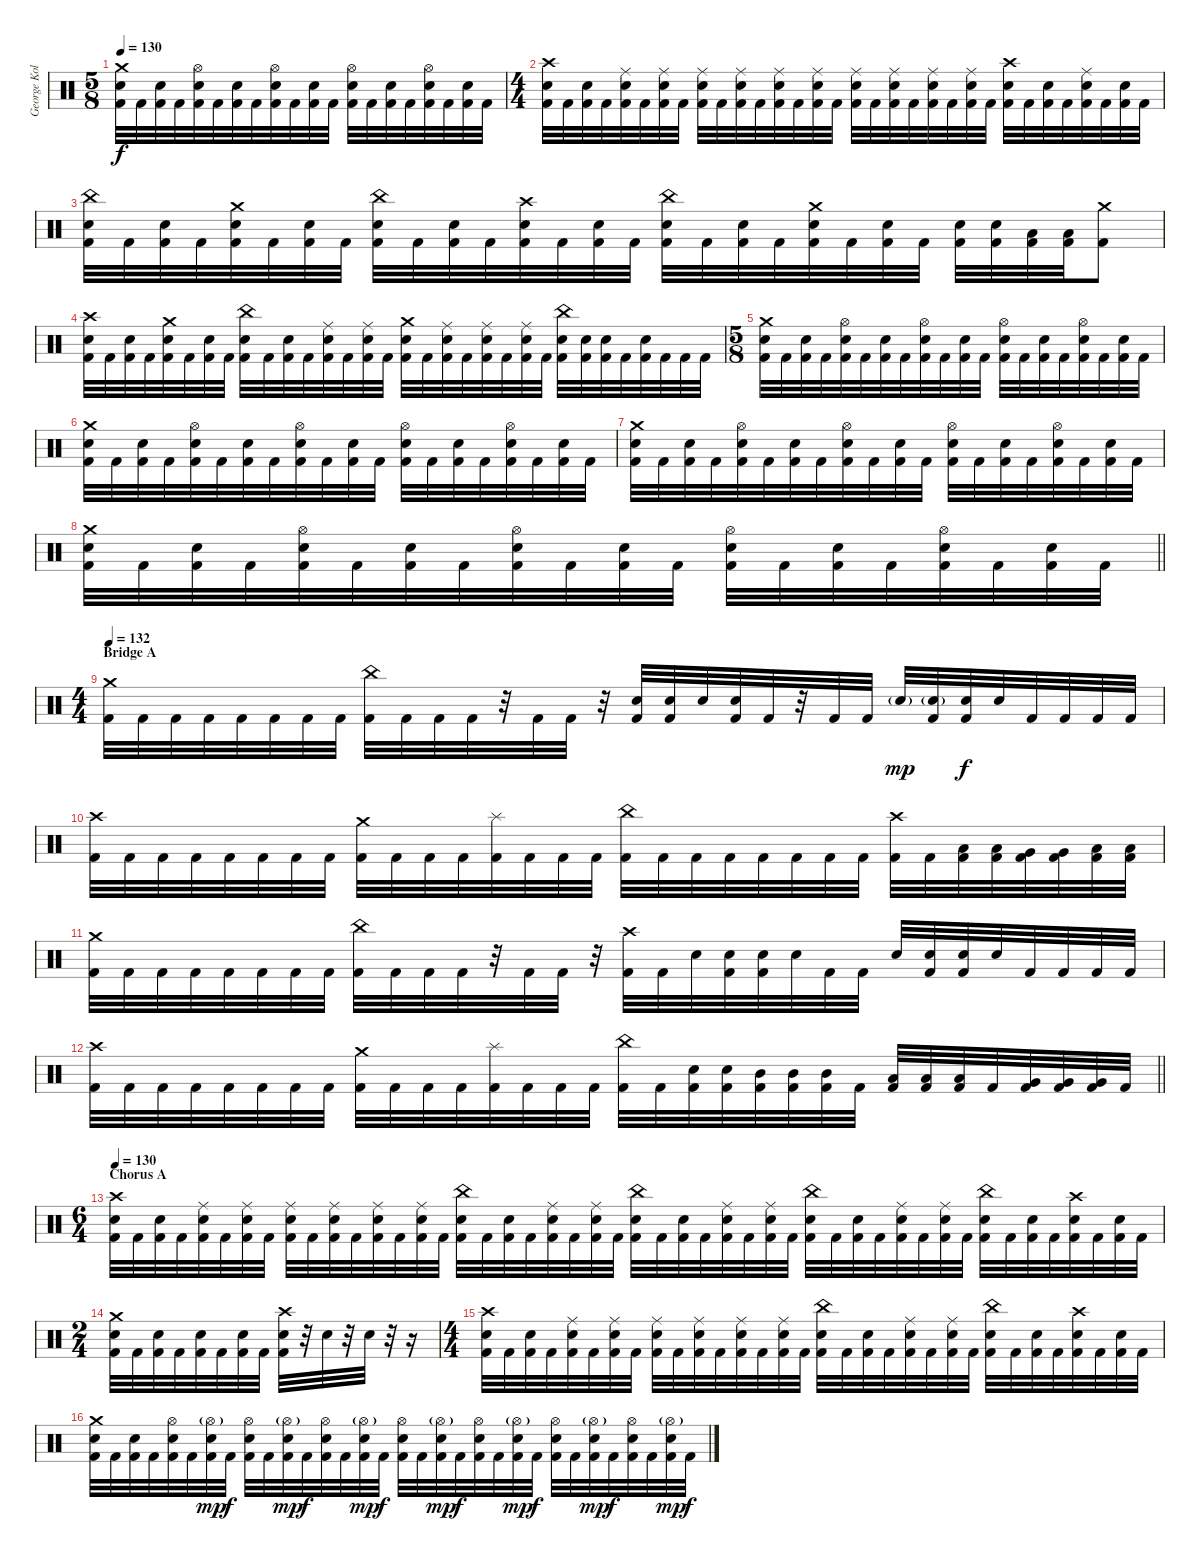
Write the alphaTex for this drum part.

\track ("George Kollias" "George Kol") {instrument percussion}
\staff {score}
\articulation defaults
\ts (5 8)
\tempo 130
\clef neutral
\ks c
("Crash medium (hit)" "Electric Snare (hit)" "Kick (hit) 2").32{dy f} "Kick (hit) 2".32 ("Electric Snare (hit)" "Kick (hit) 2").32 "Kick (hit) 2".32 ("Hi-Hat (open)" "Electric Snare (hit)" "Kick (hit) 2").32 "Kick (hit) 2".32 ("Electric Snare (hit)" "Kick (hit) 2").32 "Kick (hit) 2".32 ("Hi-Hat (open)" "Electric Snare (hit)" "Kick (hit) 2").32 "Kick (hit) 2".32 ("Electric Snare (hit)" "Kick (hit) 2").32 "Kick (hit) 2".32 ("Hi-Hat (open)" "Electric Snare (hit)" "Kick (hit) 2").32 "Kick (hit) 2".32 ("Electric Snare (hit)" "Kick (hit) 2").32 "Kick (hit) 2".32 ("Hi-Hat (open)" "Electric Snare (hit)" "Kick (hit) 2").32 "Kick (hit) 2".32 ("Electric Snare (hit)" "Kick (hit) 2").32 "Kick (hit) 2".32 |
\ts (4 4)
("Crash high (hit)" "Electric Snare (hit)" "Kick (hit) 2").32 "Kick (hit) 2".32 ("Electric Snare (hit)" "Kick (hit) 2").32 "Kick (hit) 2".32 ("Ride (middle)" "Electric Snare (hit)" "Kick (hit) 2").32 "Kick (hit) 2".32 ("Ride (middle)" "Electric Snare (hit)" "Kick (hit) 2").32 "Kick (hit) 2".32 ("Ride (middle)" "Electric Snare (hit)" "Kick (hit) 2").32 "Kick (hit) 2".32 ("Ride (middle)" "Electric Snare (hit)" "Kick (hit) 2").32 "Kick (hit) 2".32 ("Ride (middle)" "Electric Snare (hit)" "Kick (hit) 2").32 "Kick (hit) 2".32 ("Ride (middle)" "Electric Snare (hit)" "Kick (hit) 2").32 "Kick (hit) 2".32 ("Ride (middle)" "Electric Snare (hit)" "Kick (hit) 2").32 "Kick (hit) 2".32 ("Ride (middle)" "Electric Snare (hit)" "Kick (hit) 2").32 "Kick (hit) 2".32 ("Ride (middle)" "Electric Snare (hit)" "Kick (hit) 2").32 "Kick (hit) 2".32 ("Ride (middle)" "Electric Snare (hit)" "Kick (hit) 2").32 "Kick (hit) 2".32 ("Crash high (hit)" "Electric Snare (hit)" "Kick (hit) 2").32 "Kick (hit) 2".32 ("Electric Snare (hit)" "Kick (hit) 2").32 "Kick (hit) 2".32 ("Ride (middle)" "Electric Snare (hit)" "Kick (hit) 2").32 "Kick (hit) 2".32 ("Electric Snare (hit)" "Kick (hit) 2").32 "Kick (hit) 2".32 |
("China (hit)" "Electric Snare (hit)" "Kick (hit) 2").32 "Kick (hit) 2".32 ("Electric Snare (hit)" "Kick (hit) 2").32 "Kick (hit) 2".32 ("Crash medium (hit)" "Electric Snare (hit)" "Kick (hit) 2").32 "Kick (hit) 2".32 ("Electric Snare (hit)" "Kick (hit) 2").32 "Kick (hit) 2".32 ("China (hit)" "Electric Snare (hit)" "Kick (hit) 2").32 "Kick (hit) 2".32 ("Electric Snare (hit)" "Kick (hit) 2").32 "Kick (hit) 2".32 ("Crash high (hit)" "Electric Snare (hit)" "Kick (hit) 2").32 "Kick (hit) 2".32 ("Electric Snare (hit)" "Kick (hit) 2").32 "Kick (hit) 2".32 ("China (hit)" "Electric Snare (hit)" "Kick (hit) 2").32 "Kick (hit) 2".32 ("Electric Snare (hit)" "Kick (hit) 2").32 "Kick (hit) 2".32 ("Crash medium (hit)" "Electric Snare (hit)" "Kick (hit) 2").32 "Kick (hit) 2".32 ("Electric Snare (hit)" "Kick (hit) 2").32 "Kick (hit) 2".32 ("Electric Snare (hit)" "Kick (hit) 2").32 ("Electric Snare (hit)" "Kick (hit) 2").32 ("Low Tom (hit)" "Kick (hit) 2").32 ("Low Tom (hit)" "Kick (hit) 2").32 ("Crash medium (hit)" "Kick (hit) 2").8 |
("Crash high (hit)" "Electric Snare (hit)" "Kick (hit) 2").32 "Kick (hit) 2".32 ("Electric Snare (hit)" "Kick (hit) 2").32 "Kick (hit) 2".32 ("Crash medium (hit)" "Electric Snare (hit)" "Kick (hit) 2").32 "Kick (hit) 2".32 ("Electric Snare (hit)" "Kick (hit) 2").32 "Kick (hit) 2".32 ("China (hit)" "Electric Snare (hit)" "Kick (hit) 2").32 "Kick (hit) 2".32 ("Electric Snare (hit)" "Kick (hit) 2").32 "Kick (hit) 2".32 ("Ride (middle)" "Electric Snare (hit)" "Kick (hit) 2").32 "Kick (hit) 2".32 ("Ride (middle)" "Electric Snare (hit)" "Kick (hit) 2").32 "Kick (hit) 2".32 ("Crash medium (hit)" "Electric Snare (hit)" "Kick (hit) 2").32 "Kick (hit) 2".32 ("Ride (middle)" "Electric Snare (hit)" "Kick (hit) 2").32 "Kick (hit) 2".32 ("Ride (middle)" "Electric Snare (hit)" "Kick (hit) 2").32 "Kick (hit) 2".32 ("Ride (middle)" "Electric Snare (hit)" "Kick (hit) 2").32 "Kick (hit) 2".32 ("China (hit)" "Electric Snare (hit)" "Kick (hit) 2").32 ("Electric Snare (hit)" "Kick (hit) 2").32 ("Electric Snare (hit)" "Kick (hit) 2").32 "Kick (hit) 2".32 ("Electric Snare (hit)" "Kick (hit) 2").32 "Kick (hit) 2".32 "Kick (hit) 2".32 "Kick (hit) 2".32 |
\ts (5 8)
("Crash medium (hit)" "Electric Snare (hit)" "Kick (hit) 2").32 "Kick (hit) 2".32 ("Electric Snare (hit)" "Kick (hit) 2").32 "Kick (hit) 2".32 ("Hi-Hat (open)" "Electric Snare (hit)" "Kick (hit) 2").32 "Kick (hit) 2".32 ("Electric Snare (hit)" "Kick (hit) 2").32 "Kick (hit) 2".32 ("Hi-Hat (open)" "Electric Snare (hit)" "Kick (hit) 2").32 "Kick (hit) 2".32 ("Electric Snare (hit)" "Kick (hit) 2").32 "Kick (hit) 2".32 ("Hi-Hat (open)" "Electric Snare (hit)" "Kick (hit) 2").32 "Kick (hit) 2".32 ("Electric Snare (hit)" "Kick (hit) 2").32 "Kick (hit) 2".32 ("Hi-Hat (open)" "Electric Snare (hit)" "Kick (hit) 2").32 "Kick (hit) 2".32 ("Electric Snare (hit)" "Kick (hit) 2").32 "Kick (hit) 2".32 |
("Crash medium (hit)" "Electric Snare (hit)" "Kick (hit) 2").32 "Kick (hit) 2".32 ("Electric Snare (hit)" "Kick (hit) 2").32 "Kick (hit) 2".32 ("Hi-Hat (open)" "Electric Snare (hit)" "Kick (hit) 2").32 "Kick (hit) 2".32 ("Electric Snare (hit)" "Kick (hit) 2").32 "Kick (hit) 2".32 ("Hi-Hat (open)" "Electric Snare (hit)" "Kick (hit) 2").32 "Kick (hit) 2".32 ("Electric Snare (hit)" "Kick (hit) 2").32 "Kick (hit) 2".32 ("Hi-Hat (open)" "Electric Snare (hit)" "Kick (hit) 2").32 "Kick (hit) 2".32 ("Electric Snare (hit)" "Kick (hit) 2").32 "Kick (hit) 2".32 ("Hi-Hat (open)" "Electric Snare (hit)" "Kick (hit) 2").32 "Kick (hit) 2".32 ("Electric Snare (hit)" "Kick (hit) 2").32 "Kick (hit) 2".32 |
("Crash medium (hit)" "Electric Snare (hit)" "Kick (hit) 2").32 "Kick (hit) 2".32 ("Electric Snare (hit)" "Kick (hit) 2").32 "Kick (hit) 2".32 ("Hi-Hat (open)" "Electric Snare (hit)" "Kick (hit) 2").32 "Kick (hit) 2".32 ("Electric Snare (hit)" "Kick (hit) 2").32 "Kick (hit) 2".32 ("Hi-Hat (open)" "Electric Snare (hit)" "Kick (hit) 2").32 "Kick (hit) 2".32 ("Electric Snare (hit)" "Kick (hit) 2").32 "Kick (hit) 2".32 ("Hi-Hat (open)" "Electric Snare (hit)" "Kick (hit) 2").32 "Kick (hit) 2".32 ("Electric Snare (hit)" "Kick (hit) 2").32 "Kick (hit) 2".32 ("Hi-Hat (open)" "Electric Snare (hit)" "Kick (hit) 2").32 "Kick (hit) 2".32 ("Electric Snare (hit)" "Kick (hit) 2").32 "Kick (hit) 2".32 |
\barLineRight lightlight
("Crash medium (hit)" "Electric Snare (hit)" "Kick (hit) 2").32 "Kick (hit) 2".32 ("Electric Snare (hit)" "Kick (hit) 2").32 "Kick (hit) 2".32 ("Hi-Hat (open)" "Electric Snare (hit)" "Kick (hit) 2").32 "Kick (hit) 2".32 ("Electric Snare (hit)" "Kick (hit) 2").32 "Kick (hit) 2".32 ("Hi-Hat (open)" "Electric Snare (hit)" "Kick (hit) 2").32 "Kick (hit) 2".32 ("Electric Snare (hit)" "Kick (hit) 2").32 "Kick (hit) 2".32 ("Hi-Hat (open)" "Electric Snare (hit)" "Kick (hit) 2").32 "Kick (hit) 2".32 ("Electric Snare (hit)" "Kick (hit) 2").32 "Kick (hit) 2".32 ("Hi-Hat (open)" "Electric Snare (hit)" "Kick (hit) 2").32 "Kick (hit) 2".32 ("Electric Snare (hit)" "Kick (hit) 2").32 "Kick (hit) 2".32 |
\ts (4 4)
\section ("" "Bridge A")
\tempo 132
("Crash medium (hit)" "Kick (hit) 2").32 "Kick (hit) 2".32 "Kick (hit) 2".32 "Kick (hit) 2".32 "Kick (hit) 2".32 "Kick (hit) 2".32 "Kick (hit) 2".32 "Kick (hit) 2".32 ("China (hit)" "Kick (hit) 2").32 "Kick (hit) 2".32 "Kick (hit) 2".32 "Kick (hit) 2".32 r.32 "Kick (hit) 2".32 "Kick (hit) 2".32 r.32 ("Electric Snare (hit)" "Kick (hit) 2").32 ("Electric Snare (hit)" "Kick (hit) 2").32 "Electric Snare (hit)".32 ("Electric Snare (hit)" "Kick (hit) 2").32 "Kick (hit) 2".32 r.32 "Kick (hit) 2".32 "Kick (hit) 2".32 "Electric Snare (hit)"{g}.32{dy mp} ("Electric Snare (hit)"{g} "Kick (hit) 2").32 ("Electric Snare (hit)" "Kick (hit) 2").32{dy f} "Electric Snare (hit)".32 "Kick (hit) 2".32 "Kick (hit) 2".32 "Kick (hit) 2".32 "Kick (hit) 2".32 |
("Crash high (hit)" "Kick (hit) 2").32 "Kick (hit) 2".32 "Kick (hit) 2".32 "Kick (hit) 2".32 "Kick (hit) 2".32 "Kick (hit) 2".32 "Kick (hit) 2".32 "Kick (hit) 2".32 ("Crash medium (hit)" "Kick (hit) 2").32 "Kick (hit) 2".32 "Kick (hit) 2".32 "Kick (hit) 2".32 ("Splash (hit)" "Kick (hit) 2").32 "Kick (hit) 2".32 "Kick (hit) 2".32 "Kick (hit) 2".32 ("China (hit)" "Kick (hit) 2").32 "Kick (hit) 2".32 "Kick (hit) 2".32 "Kick (hit) 2".32 "Kick (hit) 2".32 "Kick (hit) 2".32 "Kick (hit) 2".32 "Kick (hit) 2".32 ("Crash high (hit)" "Kick (hit) 2").32 "Kick (hit) 2".32 ("Low Tom (hit)" "Kick (hit) 2").32 ("Low Tom (hit)" "Kick (hit) 2").32 ("Very Low Tom (hit)" "Kick (hit) 2").32 ("Very Low Tom (hit)" "Kick (hit) 2").32 ("Low Floor Tom (hit)" "Kick (hit) 2").32 ("Low Floor Tom (hit)" "Kick (hit) 2").32 |
("Crash medium (hit)" "Kick (hit) 2").32 "Kick (hit) 2".32 "Kick (hit) 2".32 "Kick (hit) 2".32 "Kick (hit) 2".32 "Kick (hit) 2".32 "Kick (hit) 2".32 "Kick (hit) 2".32 ("China (hit)" "Kick (hit) 2").32 "Kick (hit) 2".32 "Kick (hit) 2".32 "Kick (hit) 2".32 r.32 "Kick (hit) 2".32 "Kick (hit) 2".32 r.32 ("Crash high (hit)" "Kick (hit) 2").32 "Kick (hit) 2".32 "Electric Snare (hit)".32 ("Electric Snare (hit)" "Kick (hit) 2").32 ("Electric Snare (hit)" "Kick (hit) 2").32 "Electric Snare (hit)".32 "Kick (hit) 2".32 "Kick (hit) 2".32 "Electric Snare (hit)".32 ("Electric Snare (hit)" "Kick (hit) 2").32 ("Electric Snare (hit)" "Kick (hit) 2").32 "Electric Snare (hit)".32 "Kick (hit) 2".32 "Kick (hit) 2".32 "Kick (hit) 2".32 "Kick (hit) 2".32 |
\barLineRight lightlight
("Crash high (hit)" "Kick (hit) 2").32 "Kick (hit) 2".32 "Kick (hit) 2".32 "Kick (hit) 2".32 "Kick (hit) 2".32 "Kick (hit) 2".32 "Kick (hit) 2".32 "Kick (hit) 2".32 ("Crash medium (hit)" "Kick (hit) 2").32 "Kick (hit) 2".32 "Kick (hit) 2".32 "Kick (hit) 2".32 ("Splash (hit)" "Kick (hit) 2").32 "Kick (hit) 2".32 "Kick (hit) 2".32 "Kick (hit) 2".32 ("China (hit)" "Kick (hit) 2").32 "Kick (hit) 2".32 ("Electric Snare (hit)" "Kick (hit) 2").32 ("Electric Snare (hit)" "Kick (hit) 2").32 ("Mid Tom (hit)" "Kick (hit) 2").32 ("Mid Tom (hit)" "Kick (hit) 2").32 ("Mid Tom (hit)" "Kick (hit) 2").32 "Kick (hit) 2".32 ("Low Tom (hit)" "Kick (hit) 2").32 ("Low Tom (hit)" "Kick (hit) 2").32 ("Low Tom (hit)" "Kick (hit) 2").32 "Kick (hit) 2".32 ("Very Low Tom (hit)" "Kick (hit) 2").32 ("Very Low Tom (hit)" "Kick (hit) 2").32 ("Very Low Tom (hit)" "Kick (hit) 2").32 "Kick (hit) 2".32 |
\ts (6 4)
\section ("" "Chorus A")
\tempo 130
("Crash high (hit)" "Electric Snare (hit)" "Kick (hit) 2").32 "Kick (hit) 2".32 ("Electric Snare (hit)" "Kick (hit) 2").32 "Kick (hit) 2".32 ("Ride (middle)" "Electric Snare (hit)" "Kick (hit) 2").32 "Kick (hit) 2".32 ("Ride (middle)" "Electric Snare (hit)" "Kick (hit) 2").32 "Kick (hit) 2".32 ("Ride (middle)" "Electric Snare (hit)" "Kick (hit) 2").32 "Kick (hit) 2".32 ("Ride (middle)" "Electric Snare (hit)" "Kick (hit) 2").32 "Kick (hit) 2".32 ("Ride (middle)" "Electric Snare (hit)" "Kick (hit) 2").32 "Kick (hit) 2".32 ("Ride (middle)" "Electric Snare (hit)" "Kick (hit) 2").32 "Kick (hit) 2".32 ("China (hit)" "Electric Snare (hit)" "Kick (hit) 2").32 "Kick (hit) 2".32 ("Electric Snare (hit)" "Kick (hit) 2").32 "Kick (hit) 2".32 ("Ride (middle)" "Electric Snare (hit)" "Kick (hit) 2").32 "Kick (hit) 2".32 ("Ride (middle)" "Electric Snare (hit)" "Kick (hit) 2").32 "Kick (hit) 2".32 ("China (hit)" "Electric Snare (hit)" "Kick (hit) 2").32 "Kick (hit) 2".32 ("Electric Snare (hit)" "Kick (hit) 2").32 "Kick (hit) 2".32 ("Ride (middle)" "Electric Snare (hit)" "Kick (hit) 2").32 "Kick (hit) 2".32 ("Ride (middle)" "Electric Snare (hit)" "Kick (hit) 2").32 "Kick (hit) 2".32 ("China (hit)" "Electric Snare (hit)" "Kick (hit) 2").32 "Kick (hit) 2".32 ("Electric Snare (hit)" "Kick (hit) 2").32 "Kick (hit) 2".32 ("Ride (middle)" "Electric Snare (hit)" "Kick (hit) 2").32 "Kick (hit) 2".32 ("Ride (middle)" "Electric Snare (hit)" "Kick (hit) 2").32 "Kick (hit) 2".32 ("China (hit)" "Electric Snare (hit)" "Kick (hit) 2").32 "Kick (hit) 2".32 ("Electric Snare (hit)" "Kick (hit) 2").32 "Kick (hit) 2".32 ("Crash high (hit)" "Electric Snare (hit)" "Kick (hit) 2").32 "Kick (hit) 2".32 ("Electric Snare (hit)" "Kick (hit) 2").32 "Kick (hit) 2".32 |
\ts (2 4)
("Crash medium (hit)" "Electric Snare (hit)" "Kick (hit) 2").32 "Kick (hit) 2".32 ("Electric Snare (hit)" "Kick (hit) 2").32 "Kick (hit) 2".32 ("Electric Snare (hit)" "Kick (hit) 2").32 "Kick (hit) 2".32 ("Electric Snare (hit)" "Kick (hit) 2").32 "Kick (hit) 2".32 ("Crash high (hit)" "Electric Snare (hit)" "Kick (hit) 2").32 r.32 "Electric Snare (hit)".32 r.32 "Electric Snare (hit)".32 r.32 r.16 |
\ts (4 4)
("Crash high (hit)" "Electric Snare (hit)" "Kick (hit) 2").32 "Kick (hit) 2".32 ("Electric Snare (hit)" "Kick (hit) 2").32 "Kick (hit) 2".32 ("Ride (middle)" "Electric Snare (hit)" "Kick (hit) 2").32 "Kick (hit) 2".32 ("Ride (middle)" "Electric Snare (hit)" "Kick (hit) 2").32 "Kick (hit) 2".32 ("Ride (middle)" "Electric Snare (hit)" "Kick (hit) 2").32 "Kick (hit) 2".32 ("Ride (middle)" "Electric Snare (hit)" "Kick (hit) 2").32 "Kick (hit) 2".32 ("Ride (middle)" "Electric Snare (hit)" "Kick (hit) 2").32 "Kick (hit) 2".32 ("Ride (middle)" "Electric Snare (hit)" "Kick (hit) 2").32 "Kick (hit) 2".32 ("China (hit)" "Electric Snare (hit)" "Kick (hit) 2").32 "Kick (hit) 2".32 ("Electric Snare (hit)" "Kick (hit) 2").32 "Kick (hit) 2".32 ("Ride (middle)" "Electric Snare (hit)" "Kick (hit) 2").32 "Kick (hit) 2".32 ("Ride (middle)" "Electric Snare (hit)" "Kick (hit) 2").32 "Kick (hit) 2".32 ("China (hit)" "Electric Snare (hit)" "Kick (hit) 2").32 "Kick (hit) 2".32 ("Electric Snare (hit)" "Kick (hit) 2").32 "Kick (hit) 2".32 ("Crash high (hit)" "Electric Snare (hit)" "Kick (hit) 2").32 "Kick (hit) 2".32 ("Electric Snare (hit)" "Kick (hit) 2").32 "Kick (hit) 2".32 |
("Crash medium (hit)" "Electric Snare (hit)" "Kick (hit) 2").32 "Kick (hit) 2".32 ("Electric Snare (hit)" "Kick (hit) 2").32 "Kick (hit) 2".32 ("Hi-Hat (open)" "Electric Snare (hit)" "Kick (hit) 2").32 "Kick (hit) 2".32 ("Hi-Hat (open)"{g} "Electric Snare (hit)" "Kick (hit) 2").32{dy mp} "Kick (hit) 2".32{dy f} ("Hi-Hat (open)" "Electric Snare (hit)" "Kick (hit) 2").32 "Kick (hit) 2".32 ("Hi-Hat (open)"{g} "Electric Snare (hit)" "Kick (hit) 2").32{dy mp} "Kick (hit) 2".32{dy f} ("Hi-Hat (open)" "Electric Snare (hit)" "Kick (hit) 2").32 "Kick (hit) 2".32 ("Hi-Hat (open)"{g} "Electric Snare (hit)" "Kick (hit) 2").32{dy mp} "Kick (hit) 2".32{dy f} ("Hi-Hat (open)" "Electric Snare (hit)" "Kick (hit) 2").32 "Kick (hit) 2".32 ("Hi-Hat (open)"{g} "Electric Snare (hit)" "Kick (hit) 2").32{dy mp} "Kick (hit) 2".32{dy f} ("Hi-Hat (open)" "Electric Snare (hit)" "Kick (hit) 2").32 "Kick (hit) 2".32 ("Hi-Hat (open)"{g} "Electric Snare (hit)" "Kick (hit) 2").32{dy mp} "Kick (hit) 2".32{dy f} ("Hi-Hat (open)" "Electric Snare (hit)" "Kick (hit) 2").32 "Kick (hit) 2".32 ("Hi-Hat (open)"{g} "Electric Snare (hit)" "Kick (hit) 2").32{dy mp} "Kick (hit) 2".32{dy f} ("Hi-Hat (open)" "Electric Snare (hit)" "Kick (hit) 2").32 "Kick (hit) 2".32 ("Hi-Hat (open)"{g} "Electric Snare (hit)" "Kick (hit) 2").32{dy mp} "Kick (hit) 2".32{dy f}
